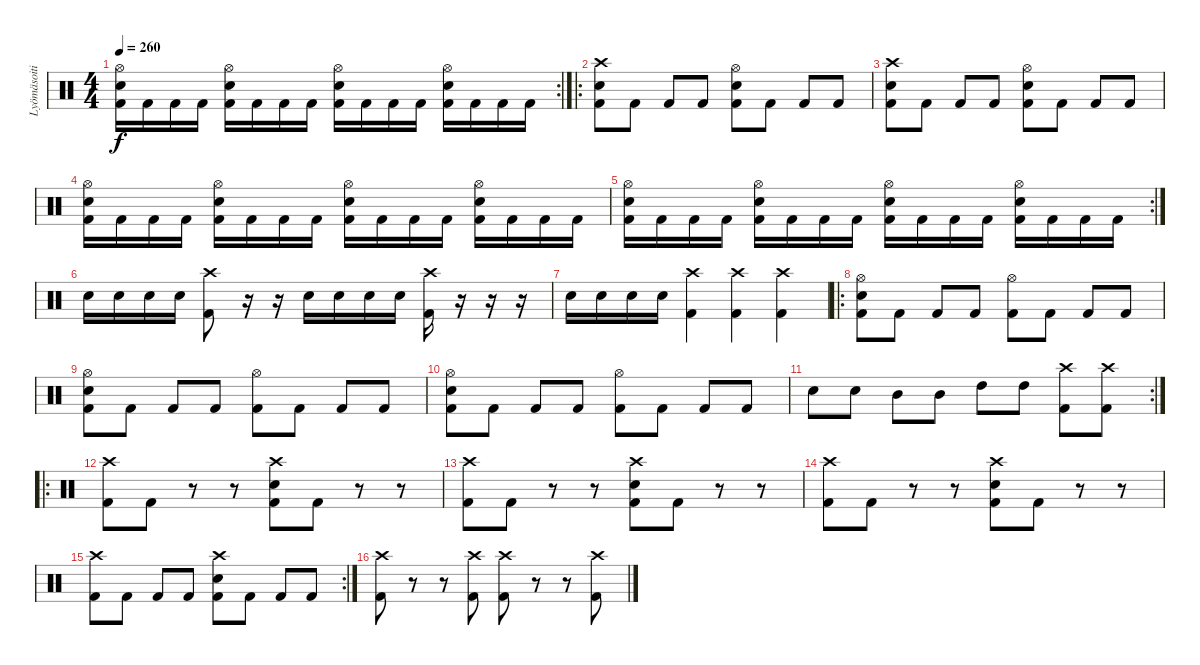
\track ("Lyömäsoitin" "Lyömäsoiti") {instrument percussion}
\staff {score}
\articulation defaults
\rc 2
\ts (4 4)
\tempo 260
\clef neutral
\ks c
("Hi-Hat (open)" "Electric Snare (hit)" "Kick (hit) 2").16{dy f} "Kick (hit) 2".16 "Kick (hit) 2".16 "Kick (hit) 2".16 ("Hi-Hat (open)" "Electric Snare (hit)" "Kick (hit) 2").16 "Kick (hit) 2".16 "Kick (hit) 2".16 "Kick (hit) 2".16 ("Hi-Hat (open)" "Electric Snare (hit)" "Kick (hit) 2").16 "Kick (hit) 2".16 "Kick (hit) 2".16 "Kick (hit) 2".16 ("Hi-Hat (open)" "Electric Snare (hit)" "Kick (hit) 2").16 "Kick (hit) 2".16 "Kick (hit) 2".16 "Kick (hit) 2".16 |
\ro
("Crash high (hit)" "Electric Snare (hit)" "Kick (hit) 2").8 "Kick (hit) 2".8 "Kick (hit) 2".8 "Kick (hit) 2".8 ("Electric Snare (hit)" "Hi-Hat (open)" "Kick (hit) 2").8 "Kick (hit) 2".8 "Kick (hit) 2".8 "Kick (hit) 2".8 |
("Crash high (hit)" "Electric Snare (hit)" "Kick (hit) 2").8 "Kick (hit) 2".8 "Kick (hit) 2".8 "Kick (hit) 2".8 ("Electric Snare (hit)" "Hi-Hat (open)" "Kick (hit) 2").8 "Kick (hit) 2".8 "Kick (hit) 2".8 "Kick (hit) 2".8 |
("Hi-Hat (open)" "Electric Snare (hit)" "Kick (hit) 2").16 "Kick (hit) 2".16 "Kick (hit) 2".16 "Kick (hit) 2".16 ("Hi-Hat (open)" "Electric Snare (hit)" "Kick (hit) 2").16 "Kick (hit) 2".16 "Kick (hit) 2".16 "Kick (hit) 2".16 ("Hi-Hat (open)" "Electric Snare (hit)" "Kick (hit) 2").16 "Kick (hit) 2".16 "Kick (hit) 2".16 "Kick (hit) 2".16 ("Hi-Hat (open)" "Electric Snare (hit)" "Kick (hit) 2").16 "Kick (hit) 2".16 "Kick (hit) 2".16 "Kick (hit) 2".16 |
\rc 2
("Hi-Hat (open)" "Electric Snare (hit)" "Kick (hit) 2").16 "Kick (hit) 2".16 "Kick (hit) 2".16 "Kick (hit) 2".16 ("Hi-Hat (open)" "Electric Snare (hit)" "Kick (hit) 2").16 "Kick (hit) 2".16 "Kick (hit) 2".16 "Kick (hit) 2".16 ("Hi-Hat (open)" "Electric Snare (hit)" "Kick (hit) 2").16 "Kick (hit) 2".16 "Kick (hit) 2".16 "Kick (hit) 2".16 ("Hi-Hat (open)" "Electric Snare (hit)" "Kick (hit) 2").16 "Kick (hit) 2".16 "Kick (hit) 2".16 "Kick (hit) 2".16 |
"Electric Snare (hit)".16 "Electric Snare (hit)".16 "Electric Snare (hit)".16 "Electric Snare (hit)".16 ("Crash high (hit)" "Kick (hit) 2").8 r.16 r.16 "Electric Snare (hit)".16 "Electric Snare (hit)".16 "Electric Snare (hit)".16 "Electric Snare (hit)".16 ("Crash high (hit)" "Kick (hit) 2").16 r.16 r.16 r.16 |
"Electric Snare (hit)".16 "Electric Snare (hit)".16 "Electric Snare (hit)".16 "Electric Snare (hit)".16 ("Crash high (hit)" "Kick (hit) 2").4 ("Crash high (hit)" "Kick (hit) 2").4 ("Crash high (hit)" "Kick (hit) 2").4 |
\ro
("Hi-Hat (open)" "Electric Snare (hit)" "Kick (hit) 2").8 "Kick (hit) 2".8 "Kick (hit) 2".8 "Kick (hit) 2".8 ("Hi-Hat (open)" "Kick (hit) 2").8 "Kick (hit) 2".8 "Kick (hit) 2".8 "Kick (hit) 2".8 |
("Hi-Hat (open)" "Electric Snare (hit)" "Kick (hit) 2").8 "Kick (hit) 2".8 "Kick (hit) 2".8 "Kick (hit) 2".8 ("Hi-Hat (open)" "Kick (hit) 2").8 "Kick (hit) 2".8 "Kick (hit) 2".8 "Kick (hit) 2".8 |
("Hi-Hat (open)" "Electric Snare (hit)" "Kick (hit) 2").8 "Kick (hit) 2".8 "Kick (hit) 2".8 "Kick (hit) 2".8 ("Hi-Hat (open)" "Kick (hit) 2").8 "Kick (hit) 2".8 "Kick (hit) 2".8 "Kick (hit) 2".8 |
\rc 2 "Electric Snare (hit)".8 "Electric Snare (hit)".8 "Mid Tom (hit)".8 "Mid Tom (hit)".8 "High Tom (hit)".8 "High Tom (hit)".8
("Crash high (hit)" "Kick (hit) 2").8 ("Crash high (hit)" "Kick (hit) 2").8 |
\ro
("Crash high (hit)" "Kick (hit) 2").8 "Kick (hit) 2".8 r.8 r.8 ("Crash high (hit)" "Electric Snare (hit)" "Kick (hit) 2").8 "Kick (hit) 2".8 r.8 r.8 |
("Crash high (hit)" "Kick (hit) 2").8 "Kick (hit) 2".8 r.8 r.8 ("Crash high (hit)" "Electric Snare (hit)" "Kick (hit) 2").8 "Kick (hit) 2".8 r.8 r.8 |
("Crash high (hit)" "Kick (hit) 2").8 "Kick (hit) 2".8 r.8 r.8 ("Crash high (hit)" "Electric Snare (hit)" "Kick (hit) 2").8 "Kick (hit) 2".8 r.8 r.8 |
\rc 2
("Crash high (hit)" "Kick (hit) 2").8 "Kick (hit) 2".8 "Kick (hit) 2".8 "Kick (hit) 2".8 ("Crash high (hit)" "Electric Snare (hit)" "Kick (hit) 2").8 "Kick (hit) 2".8 "Kick (hit) 2".8 "Kick (hit) 2".8 |
("Kick (hit) 2" "Crash high (hit)").8 r.8 r.8 ("Kick (hit) 2" "Crash high (hit)").8 ("Kick (hit) 2" "Crash high (hit)").8 r.8 r.8 ("Kick (hit) 2" "Crash high (hit)").8
